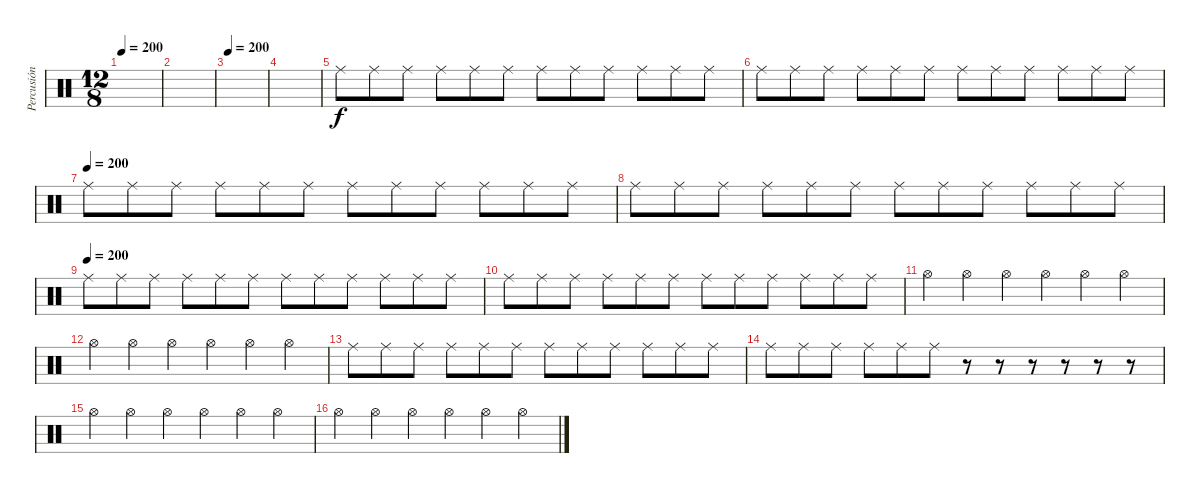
\track ("Percusión" "Percusión") {instrument percussion}
\staff {score}
\articulation defaults
\ts (12 8)
\tempo 200
\clef neutral
\ks c
|
|
\tempo 200
|
|
"Ride (middle)".8 "Ride (middle)".8 "Ride (middle)".8 "Ride (middle)".8 "Ride (middle)".8 "Ride (middle)".8 "Ride (middle)".8 "Ride (middle)".8 "Ride (middle)".8 "Ride (middle)".8 "Ride (middle)".8 "Ride (middle)".8 |
"Ride (middle)".8 "Ride (middle)".8 "Ride (middle)".8 "Ride (middle)".8 "Ride (middle)".8 "Ride (middle)".8 "Ride (middle)".8 "Ride (middle)".8 "Ride (middle)".8 "Ride (middle)".8 "Ride (middle)".8 "Ride (middle)".8 |
\tempo (200)
"Ride (middle)".8 "Ride (middle)".8 "Ride (middle)".8 "Ride (middle)".8 "Ride (middle)".8 "Ride (middle)".8 "Ride (middle)".8 "Ride (middle)".8 "Ride (middle)".8 "Ride (middle)".8 "Ride (middle)".8 "Ride (middle)".8 |
"Ride (middle)".8 "Ride (middle)".8 "Ride (middle)".8 "Ride (middle)".8 "Ride (middle)".8 "Ride (middle)".8 "Ride (middle)".8 "Ride (middle)".8 "Ride (middle)".8 "Ride (middle)".8 "Ride (middle)".8 "Ride (middle)".8 |
\tempo (200)
"Ride (middle)".8 "Ride (middle)".8 "Ride (middle)".8 "Ride (middle)".8 "Ride (middle)".8 "Ride (middle)".8 "Ride (middle)".8 "Ride (middle)".8 "Ride (middle)".8 "Ride (middle)".8 "Ride (middle)".8 "Ride (middle)".8 |
"Ride (middle)".8 "Ride (middle)".8 "Ride (middle)".8 "Ride (middle)".8 "Ride (middle)".8 "Ride (middle)".8 "Ride (middle)".8 "Ride (middle)".8 "Ride (middle)".8 "Ride (middle)".8 "Ride (middle)".8 "Ride (middle)".8 |
"Hi-Hat (open)".4 "Hi-Hat (open)".4 "Hi-Hat (open)".4 "Hi-Hat (open)".4 "Hi-Hat (open)".4 "Hi-Hat (open)".4 |
"Hi-Hat (open)".4 "Hi-Hat (open)".4 "Hi-Hat (open)".4 "Hi-Hat (open)".4 "Hi-Hat (open)".4 "Hi-Hat (open)".4 |
"Ride (middle)".8 "Ride (middle)".8 "Ride (middle)".8 "Ride (middle)".8 "Ride (middle)".8 "Ride (middle)".8 "Ride (middle)".8 "Ride (middle)".8 "Ride (middle)".8 "Ride (middle)".8 "Ride (middle)".8 "Ride (middle)".8 |
"Ride (middle)".8 "Ride (middle)".8 "Ride (middle)".8 "Ride (middle)".8 "Ride (middle)".8 "Ride (middle)".8 r.8 r.8 r.8 r.8 r.8 r.8 |
"Hi-Hat (open)".4 "Hi-Hat (open)".4 "Hi-Hat (open)".4 "Hi-Hat (open)".4 "Hi-Hat (open)".4 "Hi-Hat (open)".4 |
"Hi-Hat (open)".4 "Hi-Hat (open)".4 "Hi-Hat (open)".4 "Hi-Hat (open)".4 "Hi-Hat (open)".4 "Hi-Hat (open)".4
